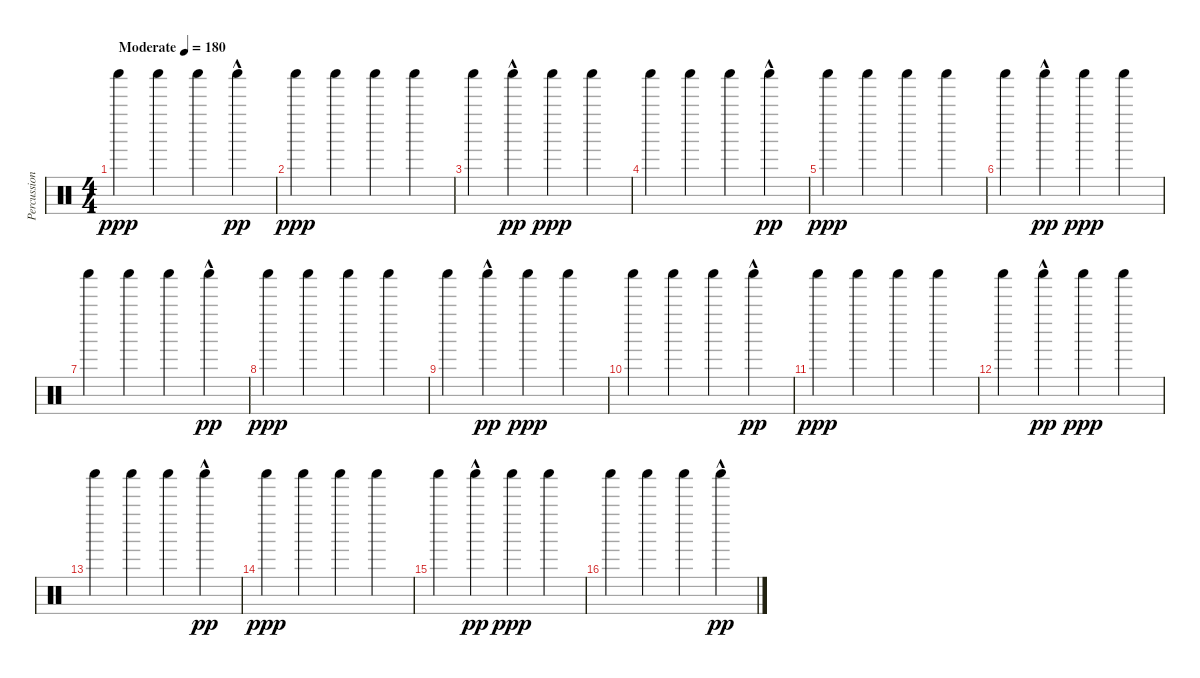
\track ("Percussion" "Percussion") {instrument percussion}
\staff {score}
\articulation defaults
\ts (4 4)
\tempo (180 "Moderate")
\clef neutral
\ks c "Shaker (hit)".4{dy ppp} "Shaker (hit)".4 "Shaker (hit)".4 "Shaker (hit)"{hac}.4{dy pp}
|
"Shaker (hit)".4{dy ppp} "Shaker (hit)".4 "Shaker (hit)".4 "Shaker (hit)".4 |
"Shaker (hit)".4 "Shaker (hit)"{hac}.4{dy pp} "Shaker (hit)".4{dy ppp} "Shaker (hit)".4 |
"Shaker (hit)".4 "Shaker (hit)".4 "Shaker (hit)".4 "Shaker (hit)"{hac}.4{dy pp} |
"Shaker (hit)".4{dy ppp} "Shaker (hit)".4 "Shaker (hit)".4 "Shaker (hit)".4 |
"Shaker (hit)".4 "Shaker (hit)"{hac}.4{dy pp} "Shaker (hit)".4{dy ppp} "Shaker (hit)".4 |
"Shaker (hit)".4 "Shaker (hit)".4 "Shaker (hit)".4 "Shaker (hit)"{hac}.4{dy pp} |
"Shaker (hit)".4{dy ppp} "Shaker (hit)".4 "Shaker (hit)".4 "Shaker (hit)".4 |
"Shaker (hit)".4 "Shaker (hit)"{hac}.4{dy pp} "Shaker (hit)".4{dy ppp} "Shaker (hit)".4 |
"Shaker (hit)".4 "Shaker (hit)".4 "Shaker (hit)".4 "Shaker (hit)"{hac}.4{dy pp} |
"Shaker (hit)".4{dy ppp} "Shaker (hit)".4 "Shaker (hit)".4 "Shaker (hit)".4 |
"Shaker (hit)".4 "Shaker (hit)"{hac}.4{dy pp} "Shaker (hit)".4{dy ppp} "Shaker (hit)".4 |
"Shaker (hit)".4 "Shaker (hit)".4 "Shaker (hit)".4 "Shaker (hit)"{hac}.4{dy pp} |
"Shaker (hit)".4{dy ppp} "Shaker (hit)".4 "Shaker (hit)".4 "Shaker (hit)".4 |
"Shaker (hit)".4 "Shaker (hit)"{hac}.4{dy pp} "Shaker (hit)".4{dy ppp} "Shaker (hit)".4 |
"Shaker (hit)".4 "Shaker (hit)".4 "Shaker (hit)".4 "Shaker (hit)"{hac}.4{dy pp}
